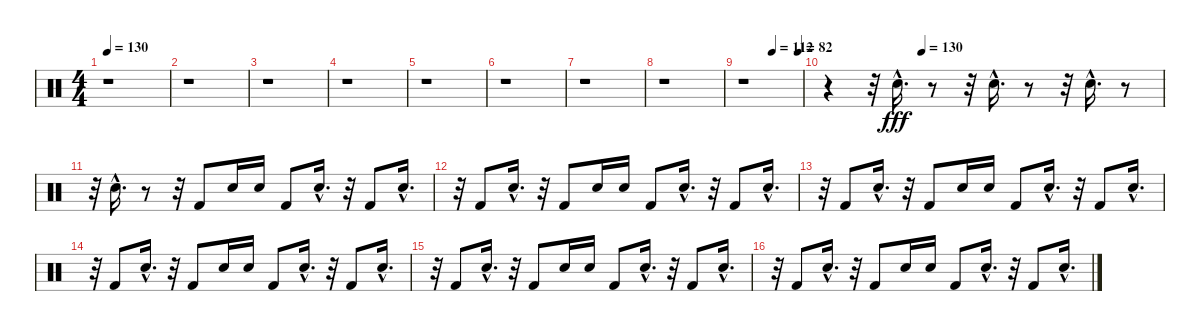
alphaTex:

\track "" {instrument percussion}
\staff {score}
\articulation defaults
\ts (4 4)
\tempo 130
\clef neutral
\ks c
r.1{dy f} |
r.1 |
r.1 |
r.1 |
r.1 |
r.1 |
r.1 |
r.1 |
\tempo (112 0.5)
\tempo (82 0.9375)
r.1 |
\tempo (130 0.28125)
r.4 r.32 "Electric Snare (hit)"{hac}.16{d dy fff} r.8 r.32 "Electric Snare (hit)"{hac}.16{d} r.8 r.32 "Electric Snare (hit)"{hac}.16{d} r.8 |
r.32 "Electric Snare (hit)"{hac}.16{d} r.8 r.32 "Kick (hit) 2".8 "Electric Snare (hit)".16 "Electric Snare (hit)".16 "Kick (hit) 2".8 "Electric Snare (hit)"{hac}.16{d} r.32 "Kick (hit) 2".8 "Electric Snare (hit)"{hac}.16{d} |
r.32 "Kick (hit) 2".8 "Electric Snare (hit)"{hac}.16{d} r.32 "Kick (hit) 2".8 "Electric Snare (hit)".16 "Electric Snare (hit)".16 "Kick (hit) 2".8 "Electric Snare (hit)"{hac}.16{d} r.32 "Kick (hit) 2".8 "Electric Snare (hit)"{hac}.16{d} |
r.32 "Kick (hit) 2".8 "Electric Snare (hit)"{hac}.16{d} r.32 "Kick (hit) 2".8 "Electric Snare (hit)".16 "Electric Snare (hit)".16 "Kick (hit) 2".8 "Electric Snare (hit)"{hac}.16{d} r.32 "Kick (hit) 2".8 "Electric Snare (hit)"{hac}.16{d} |
r.32 "Kick (hit) 2".8 "Electric Snare (hit)"{hac}.16{d} r.32 "Kick (hit) 2".8 "Electric Snare (hit)".16 "Electric Snare (hit)".16 "Kick (hit) 2".8 "Electric Snare (hit)"{hac}.16{d} r.32 "Kick (hit) 2".8 "Electric Snare (hit)"{hac}.16{d} |
r.32 "Kick (hit) 2".8 "Electric Snare (hit)"{hac}.16{d} r.32 "Kick (hit) 2".8 "Electric Snare (hit)".16 "Electric Snare (hit)".16 "Kick (hit) 2".8 "Electric Snare (hit)"{hac}.16{d} r.32 "Kick (hit) 2".8 "Electric Snare (hit)"{hac}.16{d} |
r.32 "Kick (hit) 2".8 "Electric Snare (hit)"{hac}.16{d} r.32 "Kick (hit) 2".8 "Electric Snare (hit)".16 "Electric Snare (hit)".16 "Kick (hit) 2".8 "Electric Snare (hit)"{hac}.16{d} r.32 "Kick (hit) 2".8 "Electric Snare (hit)"{hac}.16{d}
